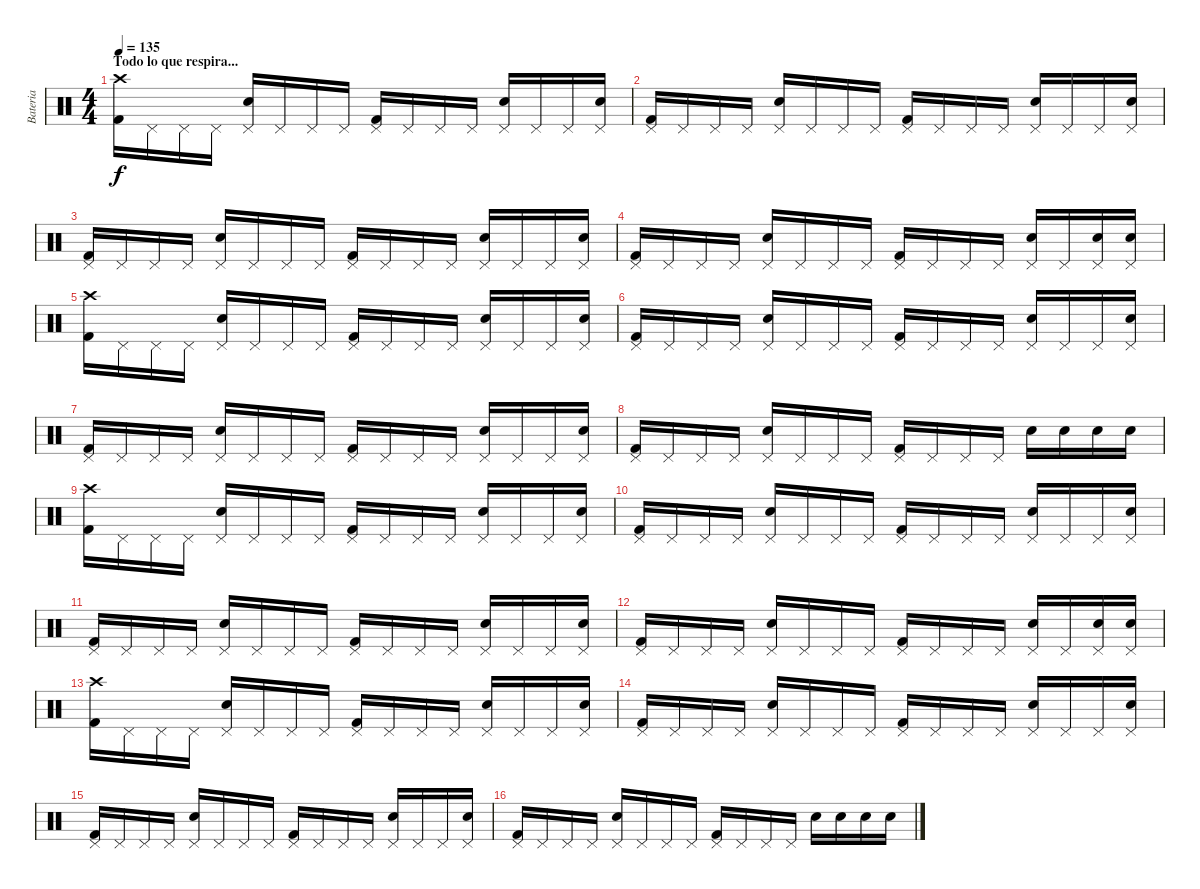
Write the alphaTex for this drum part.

\track ("Bateria" "Bateria") {instrument percussion}
\staff {score}
\articulation defaults
\ts (4 4)
\section ("" "Todo lo que respira...")
\tempo 135
\clef neutral
\ks c
("Crash high (hit)" "Kick (hit) 2").16{dy f} "Pedal Hi-Hat (hit)".16 "Pedal Hi-Hat (hit)".16 "Pedal Hi-Hat (hit)".16 ("Pedal Hi-Hat (hit)" "Electric Snare (hit)").16 "Pedal Hi-Hat (hit)".16 "Pedal Hi-Hat (hit)".16 "Pedal Hi-Hat (hit)".16 ("Pedal Hi-Hat (hit)" "Kick (hit) 2").16 "Pedal Hi-Hat (hit)".16 "Pedal Hi-Hat (hit)".16 "Pedal Hi-Hat (hit)".16 ("Pedal Hi-Hat (hit)" "Electric Snare (hit)").16 "Pedal Hi-Hat (hit)".16 "Pedal Hi-Hat (hit)".16 ("Pedal Hi-Hat (hit)" "Electric Snare (hit)").16 |
("Pedal Hi-Hat (hit)" "Kick (hit) 2").16 "Pedal Hi-Hat (hit)".16 "Pedal Hi-Hat (hit)".16 "Pedal Hi-Hat (hit)".16 ("Pedal Hi-Hat (hit)" "Electric Snare (hit)").16 "Pedal Hi-Hat (hit)".16 "Pedal Hi-Hat (hit)".16 "Pedal Hi-Hat (hit)".16 ("Pedal Hi-Hat (hit)" "Kick (hit) 2").16 "Pedal Hi-Hat (hit)".16 "Pedal Hi-Hat (hit)".16 "Pedal Hi-Hat (hit)".16 ("Pedal Hi-Hat (hit)" "Electric Snare (hit)").16 "Pedal Hi-Hat (hit)".16 "Pedal Hi-Hat (hit)".16 ("Pedal Hi-Hat (hit)" "Electric Snare (hit)").16 |
("Pedal Hi-Hat (hit)" "Kick (hit) 2").16 "Pedal Hi-Hat (hit)".16 "Pedal Hi-Hat (hit)".16 "Pedal Hi-Hat (hit)".16 ("Pedal Hi-Hat (hit)" "Electric Snare (hit)").16 "Pedal Hi-Hat (hit)".16 "Pedal Hi-Hat (hit)".16 "Pedal Hi-Hat (hit)".16 ("Pedal Hi-Hat (hit)" "Kick (hit) 2").16 "Pedal Hi-Hat (hit)".16 "Pedal Hi-Hat (hit)".16 "Pedal Hi-Hat (hit)".16 ("Pedal Hi-Hat (hit)" "Electric Snare (hit)").16 "Pedal Hi-Hat (hit)".16 "Pedal Hi-Hat (hit)".16 ("Pedal Hi-Hat (hit)" "Electric Snare (hit)").16 |
("Pedal Hi-Hat (hit)" "Kick (hit) 2").16 "Pedal Hi-Hat (hit)".16 "Pedal Hi-Hat (hit)".16 "Pedal Hi-Hat (hit)".16 ("Pedal Hi-Hat (hit)" "Electric Snare (hit)").16 "Pedal Hi-Hat (hit)".16 "Pedal Hi-Hat (hit)".16 "Pedal Hi-Hat (hit)".16 ("Pedal Hi-Hat (hit)" "Kick (hit) 2").16 "Pedal Hi-Hat (hit)".16 "Pedal Hi-Hat (hit)".16 "Pedal Hi-Hat (hit)".16 ("Pedal Hi-Hat (hit)" "Electric Snare (hit)").16 "Pedal Hi-Hat (hit)".16 ("Pedal Hi-Hat (hit)" "Electric Snare (hit)").16 ("Pedal Hi-Hat (hit)" "Electric Snare (hit)").16 |
("Crash high (hit)" "Kick (hit) 2").16 "Pedal Hi-Hat (hit)".16 "Pedal Hi-Hat (hit)".16 "Pedal Hi-Hat (hit)".16 ("Pedal Hi-Hat (hit)" "Electric Snare (hit)").16 "Pedal Hi-Hat (hit)".16 "Pedal Hi-Hat (hit)".16 "Pedal Hi-Hat (hit)".16 ("Pedal Hi-Hat (hit)" "Kick (hit) 2").16 "Pedal Hi-Hat (hit)".16 "Pedal Hi-Hat (hit)".16 "Pedal Hi-Hat (hit)".16 ("Pedal Hi-Hat (hit)" "Electric Snare (hit)").16 "Pedal Hi-Hat (hit)".16 "Pedal Hi-Hat (hit)".16 ("Pedal Hi-Hat (hit)" "Electric Snare (hit)").16 |
("Pedal Hi-Hat (hit)" "Kick (hit) 2").16 "Pedal Hi-Hat (hit)".16 "Pedal Hi-Hat (hit)".16 "Pedal Hi-Hat (hit)".16 ("Pedal Hi-Hat (hit)" "Electric Snare (hit)").16 "Pedal Hi-Hat (hit)".16 "Pedal Hi-Hat (hit)".16 "Pedal Hi-Hat (hit)".16 ("Pedal Hi-Hat (hit)" "Kick (hit) 2").16 "Pedal Hi-Hat (hit)".16 "Pedal Hi-Hat (hit)".16 "Pedal Hi-Hat (hit)".16 ("Pedal Hi-Hat (hit)" "Electric Snare (hit)").16 "Pedal Hi-Hat (hit)".16 "Pedal Hi-Hat (hit)".16 ("Pedal Hi-Hat (hit)" "Electric Snare (hit)").16 |
("Pedal Hi-Hat (hit)" "Kick (hit) 2").16 "Pedal Hi-Hat (hit)".16 "Pedal Hi-Hat (hit)".16 "Pedal Hi-Hat (hit)".16 ("Pedal Hi-Hat (hit)" "Electric Snare (hit)").16 "Pedal Hi-Hat (hit)".16 "Pedal Hi-Hat (hit)".16 "Pedal Hi-Hat (hit)".16 ("Pedal Hi-Hat (hit)" "Kick (hit) 2").16 "Pedal Hi-Hat (hit)".16 "Pedal Hi-Hat (hit)".16 "Pedal Hi-Hat (hit)".16 ("Pedal Hi-Hat (hit)" "Electric Snare (hit)").16 "Pedal Hi-Hat (hit)".16 "Pedal Hi-Hat (hit)".16 ("Pedal Hi-Hat (hit)" "Electric Snare (hit)").16 |
("Pedal Hi-Hat (hit)" "Kick (hit) 2").16 "Pedal Hi-Hat (hit)".16 "Pedal Hi-Hat (hit)".16 "Pedal Hi-Hat (hit)".16 ("Pedal Hi-Hat (hit)" "Electric Snare (hit)").16 "Pedal Hi-Hat (hit)".16 "Pedal Hi-Hat (hit)".16 "Pedal Hi-Hat (hit)".16 ("Pedal Hi-Hat (hit)" "Kick (hit) 2").16 "Pedal Hi-Hat (hit)".16 "Pedal Hi-Hat (hit)".16 "Pedal Hi-Hat (hit)".16 "Electric Snare (hit)".16 "Electric Snare (hit)".16 "Electric Snare (hit)".16 "Electric Snare (hit)".16 |
("Crash high (hit)" "Kick (hit) 2").16 "Pedal Hi-Hat (hit)".16 "Pedal Hi-Hat (hit)".16 "Pedal Hi-Hat (hit)".16 ("Pedal Hi-Hat (hit)" "Electric Snare (hit)").16 "Pedal Hi-Hat (hit)".16 "Pedal Hi-Hat (hit)".16 "Pedal Hi-Hat (hit)".16 ("Pedal Hi-Hat (hit)" "Kick (hit) 2").16 "Pedal Hi-Hat (hit)".16 "Pedal Hi-Hat (hit)".16 "Pedal Hi-Hat (hit)".16 ("Pedal Hi-Hat (hit)" "Electric Snare (hit)").16 "Pedal Hi-Hat (hit)".16 "Pedal Hi-Hat (hit)".16 ("Pedal Hi-Hat (hit)" "Electric Snare (hit)").16 |
("Pedal Hi-Hat (hit)" "Kick (hit) 2").16 "Pedal Hi-Hat (hit)".16 "Pedal Hi-Hat (hit)".16 "Pedal Hi-Hat (hit)".16 ("Pedal Hi-Hat (hit)" "Electric Snare (hit)").16 "Pedal Hi-Hat (hit)".16 "Pedal Hi-Hat (hit)".16 "Pedal Hi-Hat (hit)".16 ("Pedal Hi-Hat (hit)" "Kick (hit) 2").16 "Pedal Hi-Hat (hit)".16 "Pedal Hi-Hat (hit)".16 "Pedal Hi-Hat (hit)".16 ("Pedal Hi-Hat (hit)" "Electric Snare (hit)").16 "Pedal Hi-Hat (hit)".16 "Pedal Hi-Hat (hit)".16 ("Pedal Hi-Hat (hit)" "Electric Snare (hit)").16 |
("Pedal Hi-Hat (hit)" "Kick (hit) 2").16 "Pedal Hi-Hat (hit)".16 "Pedal Hi-Hat (hit)".16 "Pedal Hi-Hat (hit)".16 ("Pedal Hi-Hat (hit)" "Electric Snare (hit)").16 "Pedal Hi-Hat (hit)".16 "Pedal Hi-Hat (hit)".16 "Pedal Hi-Hat (hit)".16 ("Pedal Hi-Hat (hit)" "Kick (hit) 2").16 "Pedal Hi-Hat (hit)".16 "Pedal Hi-Hat (hit)".16 "Pedal Hi-Hat (hit)".16 ("Pedal Hi-Hat (hit)" "Electric Snare (hit)").16 "Pedal Hi-Hat (hit)".16 "Pedal Hi-Hat (hit)".16 ("Pedal Hi-Hat (hit)" "Electric Snare (hit)").16 |
("Pedal Hi-Hat (hit)" "Kick (hit) 2").16 "Pedal Hi-Hat (hit)".16 "Pedal Hi-Hat (hit)".16 "Pedal Hi-Hat (hit)".16 ("Pedal Hi-Hat (hit)" "Electric Snare (hit)").16 "Pedal Hi-Hat (hit)".16 "Pedal Hi-Hat (hit)".16 "Pedal Hi-Hat (hit)".16 ("Pedal Hi-Hat (hit)" "Kick (hit) 2").16 "Pedal Hi-Hat (hit)".16 "Pedal Hi-Hat (hit)".16 "Pedal Hi-Hat (hit)".16 ("Pedal Hi-Hat (hit)" "Electric Snare (hit)").16 "Pedal Hi-Hat (hit)".16 ("Pedal Hi-Hat (hit)" "Electric Snare (hit)").16 ("Pedal Hi-Hat (hit)" "Electric Snare (hit)").16 |
("Crash high (hit)" "Kick (hit) 2").16 "Pedal Hi-Hat (hit)".16 "Pedal Hi-Hat (hit)".16 "Pedal Hi-Hat (hit)".16 ("Pedal Hi-Hat (hit)" "Electric Snare (hit)").16 "Pedal Hi-Hat (hit)".16 "Pedal Hi-Hat (hit)".16 "Pedal Hi-Hat (hit)".16 ("Pedal Hi-Hat (hit)" "Kick (hit) 2").16 "Pedal Hi-Hat (hit)".16 "Pedal Hi-Hat (hit)".16 "Pedal Hi-Hat (hit)".16 ("Pedal Hi-Hat (hit)" "Electric Snare (hit)").16 "Pedal Hi-Hat (hit)".16 "Pedal Hi-Hat (hit)".16 ("Pedal Hi-Hat (hit)" "Electric Snare (hit)").16 |
("Pedal Hi-Hat (hit)" "Kick (hit) 2").16 "Pedal Hi-Hat (hit)".16 "Pedal Hi-Hat (hit)".16 "Pedal Hi-Hat (hit)".16 ("Pedal Hi-Hat (hit)" "Electric Snare (hit)").16 "Pedal Hi-Hat (hit)".16 "Pedal Hi-Hat (hit)".16 "Pedal Hi-Hat (hit)".16 ("Pedal Hi-Hat (hit)" "Kick (hit) 2").16 "Pedal Hi-Hat (hit)".16 "Pedal Hi-Hat (hit)".16 "Pedal Hi-Hat (hit)".16 ("Pedal Hi-Hat (hit)" "Electric Snare (hit)").16 "Pedal Hi-Hat (hit)".16 "Pedal Hi-Hat (hit)".16 ("Pedal Hi-Hat (hit)" "Electric Snare (hit)").16 |
("Pedal Hi-Hat (hit)" "Kick (hit) 2").16 "Pedal Hi-Hat (hit)".16 "Pedal Hi-Hat (hit)".16 "Pedal Hi-Hat (hit)".16 ("Pedal Hi-Hat (hit)" "Electric Snare (hit)").16 "Pedal Hi-Hat (hit)".16 "Pedal Hi-Hat (hit)".16 "Pedal Hi-Hat (hit)".16 ("Pedal Hi-Hat (hit)" "Kick (hit) 2").16 "Pedal Hi-Hat (hit)".16 "Pedal Hi-Hat (hit)".16 "Pedal Hi-Hat (hit)".16 ("Pedal Hi-Hat (hit)" "Electric Snare (hit)").16 "Pedal Hi-Hat (hit)".16 "Pedal Hi-Hat (hit)".16 ("Pedal Hi-Hat (hit)" "Electric Snare (hit)").16 |
("Pedal Hi-Hat (hit)" "Kick (hit) 2").16 "Pedal Hi-Hat (hit)".16 "Pedal Hi-Hat (hit)".16 "Pedal Hi-Hat (hit)".16 ("Pedal Hi-Hat (hit)" "Electric Snare (hit)").16 "Pedal Hi-Hat (hit)".16 "Pedal Hi-Hat (hit)".16 "Pedal Hi-Hat (hit)".16 ("Pedal Hi-Hat (hit)" "Kick (hit) 2").16 "Pedal Hi-Hat (hit)".16 "Pedal Hi-Hat (hit)".16 "Pedal Hi-Hat (hit)".16 "Electric Snare (hit)".16 "Electric Snare (hit)".16 "Electric Snare (hit)".16 "Electric Snare (hit)".16
